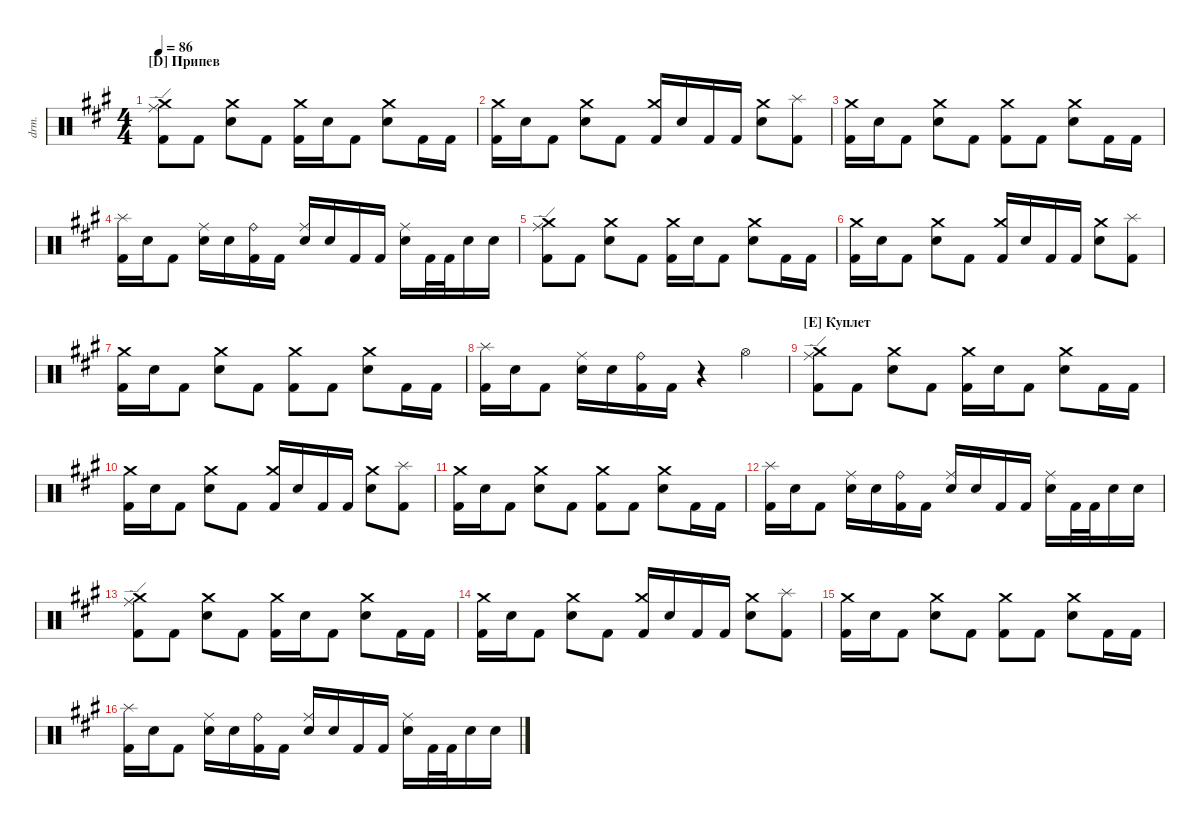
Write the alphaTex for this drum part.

\defaultSystemsLayout 4
\hideDynamics
\bracketExtendMode nobrackets
\track ("Drumkit" "drm.") {instrument percussion}
\staff {score}
\articulation defaults
\ts (4 4)
\section ("D" "Припев")
\tempo 86
\clef neutral
\ks f#minor
("Kick (hit) 2"{acc forcenatural} "Crash medium (hit)"{acc forcenatural} "Ride (edge)"{acc forcenatural}).8{dy mf beam Down} "Kick (hit) 2"{acc forcenatural}.8{beam Down} ("Snare (hit) 2"{acc forcenatural} "Crash medium (hit)"{acc forcenatural}).8{beam Down} "Kick (hit) 2"{acc forcenatural}.8{beam Down} ("Kick (hit) 2"{acc forcenatural} "Crash medium (hit)"{acc forcenatural}).16{beam Down} "Snare (hit) 2"{acc forcenatural}.16{beam Down} "Kick (hit) 2"{acc forcenatural}.8{beam Down} ("Snare (hit) 2"{acc forcenatural} "Crash medium (hit)"{acc forcenatural}).8{beam Down} "Kick (hit) 2"{acc forcenatural}.16{beam Down} "Kick (hit) 2"{acc forcenatural}.16{beam Down} |
("Kick (hit) 2"{acc forcenatural} "Crash medium (hit)"{acc forcenatural}).16{beam Down} "Snare (hit) 2"{acc forcenatural}.16{beam Down} "Kick (hit) 2"{acc forcenatural}.8{beam Down} ("Snare (hit) 2"{acc forcenatural} "Crash medium (hit)"{acc forcenatural}).8{beam Down} "Kick (hit) 2"{acc forcenatural}.8{beam Down} ("Kick (hit) 2"{acc forcenatural} "Crash medium (hit)"{acc forcenatural}).16{beam Up} "Snare (hit) 2"{acc forcenatural}.16{beam Up} "Kick (hit) 2"{acc forcenatural}.16{beam Up} "Kick (hit) 2"{acc forcenatural}.16{beam Up} ("Snare (hit) 2"{acc forcenatural} "Crash medium (hit)"{acc forcenatural}).8{beam Down} ("Kick (hit) 2"{acc forcenatural} "Splash (hit)"{acc forcenatural}).8{beam Down} |
("Kick (hit) 2"{acc forcenatural} "Crash medium (hit)"{acc forcenatural}).16{beam Down} "Snare (hit) 2"{acc forcenatural}.16{beam Down} "Kick (hit) 2"{acc forcenatural}.8{beam Down} ("Snare (hit) 2"{acc forcenatural} "Crash medium (hit)"{acc forcenatural}).8{beam Down} "Kick (hit) 2"{acc forcenatural}.8{beam Down} ("Kick (hit) 2"{acc forcenatural} "Crash medium (hit)"{acc forcenatural}).8{beam Down} "Kick (hit) 2"{acc forcenatural}.8{beam Down} ("Snare (hit) 2"{acc forcenatural} "Crash medium (hit)"{acc forcenatural}).8{beam Down} "Kick (hit) 2"{acc forcenatural}.16{beam Down} "Kick (hit) 2"{acc forcenatural}.16{beam Down} |
("Kick (hit) 2"{acc forcenatural} "Splash (hit)"{acc forcenatural}).16{beam Down} "Snare (hit) 2"{acc forcenatural}.16{beam Down} "Kick (hit) 2"{acc forcenatural}.8{beam Down} ("Snare (hit) 2"{acc forcenatural} "Ride (middle)"{acc forcenatural}).16{beam Down} "Snare (hit) 2"{acc forcenatural}.16{beam Down} ("Kick (hit) 2"{acc forcenatural} "Ride (bell)"{acc forcenatural}).16{beam Down} "Kick (hit) 2"{acc forcenatural}.16{beam Down} ("Snare (hit) 2"{acc forcenatural} "Ride (middle)"{acc forcenatural}).16{beam Up} "Snare (hit) 2"{acc forcenatural}.16{beam Up} "Kick (hit) 2"{acc forcenatural}.16{beam Up} "Kick (hit) 2"{acc forcenatural}.16{beam Up} ("Snare (hit) 2"{acc forcenatural} "Ride (middle)"{acc forcenatural}).16{beam Down} "Kick (hit) 2"{acc forcenatural}.32{beam Down} "Kick (hit) 2"{acc forcenatural}.32{beam Down} "Snare (hit) 2"{acc forcenatural}.16{beam Down} "Snare (hit) 2"{acc forcenatural}.16{beam Down} |
("Kick (hit) 2"{acc forcenatural} "Crash medium (hit)"{acc forcenatural} "Ride (edge)"{acc forcenatural}).8{beam Down} "Kick (hit) 2"{acc forcenatural}.8{beam Down} ("Snare (hit) 2"{acc forcenatural} "Crash medium (hit)"{acc forcenatural}).8{beam Down} "Kick (hit) 2"{acc forcenatural}.8{beam Down} ("Kick (hit) 2"{acc forcenatural} "Crash medium (hit)"{acc forcenatural}).16{beam Down} "Snare (hit) 2"{acc forcenatural}.16{beam Down} "Kick (hit) 2"{acc forcenatural}.8{beam Down} ("Snare (hit) 2"{acc forcenatural} "Crash medium (hit)"{acc forcenatural}).8{beam Down} "Kick (hit) 2"{acc forcenatural}.16{beam Down} "Kick (hit) 2"{acc forcenatural}.16{beam Down} |
("Kick (hit) 2"{acc forcenatural} "Crash medium (hit)"{acc forcenatural}).16{beam Down} "Snare (hit) 2"{acc forcenatural}.16{beam Down} "Kick (hit) 2"{acc forcenatural}.8{beam Down} ("Snare (hit) 2"{acc forcenatural} "Crash medium (hit)"{acc forcenatural}).8{beam Down} "Kick (hit) 2"{acc forcenatural}.8{beam Down} ("Kick (hit) 2"{acc forcenatural} "Crash medium (hit)"{acc forcenatural}).16{beam Up} "Snare (hit) 2"{acc forcenatural}.16{beam Up} "Kick (hit) 2"{acc forcenatural}.16{beam Up} "Kick (hit) 2"{acc forcenatural}.16{beam Up} ("Snare (hit) 2"{acc forcenatural} "Crash medium (hit)"{acc forcenatural}).8{beam Down} ("Kick (hit) 2"{acc forcenatural} "Splash (hit)"{acc forcenatural}).8{beam Down} |
("Kick (hit) 2"{acc forcenatural} "Crash medium (hit)"{acc forcenatural}).16{beam Down} "Snare (hit) 2"{acc forcenatural}.16{beam Down} "Kick (hit) 2"{acc forcenatural}.8{beam Down} ("Snare (hit) 2"{acc forcenatural} "Crash medium (hit)"{acc forcenatural}).8{beam Down} "Kick (hit) 2"{acc forcenatural}.8{beam Down} ("Kick (hit) 2"{acc forcenatural} "Crash medium (hit)"{acc forcenatural}).8{beam Down} "Kick (hit) 2"{acc forcenatural}.8{beam Down} ("Snare (hit) 2"{acc forcenatural} "Crash medium (hit)"{acc forcenatural}).8{beam Down} "Kick (hit) 2"{acc forcenatural}.16{beam Down} "Kick (hit) 2"{acc forcenatural}.16{beam Down} |
("Kick (hit) 2"{acc forcenatural} "Splash (hit)"{acc forcenatural}).16{beam Down} "Snare (hit) 2"{acc forcenatural}.16{beam Down} "Kick (hit) 2"{acc forcenatural}.8{beam Down} ("Snare (hit) 2"{acc forcenatural} "Ride (middle)"{acc forcenatural}).16{beam Down} "Snare (hit) 2"{acc forcenatural}.16{beam Down} ("Kick (hit) 2"{acc forcenatural} "Ride (bell)"{acc forcenatural}).16{beam Down} "Kick (hit) 2"{acc forcenatural}.16{beam Down} r.4{beam Down} "Hi-Hat (open)"{acc forcenatural}.4{beam Down} |
\section ("E" "Куплет")
("Kick (hit) 2"{acc forcenatural} "Crash medium (hit)"{acc forcenatural} "Ride (edge)"{acc forcenatural}).8{beam Down} "Kick (hit) 2"{acc forcenatural}.8{beam Down} ("Snare (hit) 2"{acc forcenatural} "Crash medium (hit)"{acc forcenatural}).8{beam Down} "Kick (hit) 2"{acc forcenatural}.8{beam Down} ("Kick (hit) 2"{acc forcenatural} "Crash medium (hit)"{acc forcenatural}).16{beam Down} "Snare (hit) 2"{acc forcenatural}.16{beam Down} "Kick (hit) 2"{acc forcenatural}.8{beam Down} ("Snare (hit) 2"{acc forcenatural} "Crash medium (hit)"{acc forcenatural}).8{beam Down} "Kick (hit) 2"{acc forcenatural}.16{beam Down} "Kick (hit) 2"{acc forcenatural}.16{beam Down} |
("Kick (hit) 2"{acc forcenatural} "Crash medium (hit)"{acc forcenatural}).16{beam Down} "Snare (hit) 2"{acc forcenatural}.16{beam Down} "Kick (hit) 2"{acc forcenatural}.8{beam Down} ("Snare (hit) 2"{acc forcenatural} "Crash medium (hit)"{acc forcenatural}).8{beam Down} "Kick (hit) 2"{acc forcenatural}.8{beam Down} ("Kick (hit) 2"{acc forcenatural} "Crash medium (hit)"{acc forcenatural}).16{beam Up} "Snare (hit) 2"{acc forcenatural}.16{beam Up} "Kick (hit) 2"{acc forcenatural}.16{beam Up} "Kick (hit) 2"{acc forcenatural}.16{beam Up} ("Snare (hit) 2"{acc forcenatural} "Crash medium (hit)"{acc forcenatural}).8{beam Down} ("Kick (hit) 2"{acc forcenatural} "Splash (hit)"{acc forcenatural}).8{beam Down} |
("Kick (hit) 2"{acc forcenatural} "Crash medium (hit)"{acc forcenatural}).16{beam Down} "Snare (hit) 2"{acc forcenatural}.16{beam Down} "Kick (hit) 2"{acc forcenatural}.8{beam Down} ("Snare (hit) 2"{acc forcenatural} "Crash medium (hit)"{acc forcenatural}).8{beam Down} "Kick (hit) 2"{acc forcenatural}.8{beam Down} ("Kick (hit) 2"{acc forcenatural} "Crash medium (hit)"{acc forcenatural}).8{beam Down} "Kick (hit) 2"{acc forcenatural}.8{beam Down} ("Snare (hit) 2"{acc forcenatural} "Crash medium (hit)"{acc forcenatural}).8{beam Down} "Kick (hit) 2"{acc forcenatural}.16{beam Down} "Kick (hit) 2"{acc forcenatural}.16{beam Down} |
("Kick (hit) 2"{acc forcenatural} "Splash (hit)"{acc forcenatural}).16{beam Down} "Snare (hit) 2"{acc forcenatural}.16{beam Down} "Kick (hit) 2"{acc forcenatural}.8{beam Down} ("Snare (hit) 2"{acc forcenatural} "Ride (middle)"{acc forcenatural}).16{beam Down} "Snare (hit) 2"{acc forcenatural}.16{beam Down} ("Kick (hit) 2"{acc forcenatural} "Ride (bell)"{acc forcenatural}).16{beam Down} "Kick (hit) 2"{acc forcenatural}.16{beam Down} ("Snare (hit) 2"{acc forcenatural} "Ride (middle)"{acc forcenatural}).16{beam Up} "Snare (hit) 2"{acc forcenatural}.16{beam Up} "Kick (hit) 2"{acc forcenatural}.16{beam Up} "Kick (hit) 2"{acc forcenatural}.16{beam Up} ("Snare (hit) 2"{acc forcenatural} "Ride (middle)"{acc forcenatural}).16{beam Down} "Kick (hit) 2"{acc forcenatural}.32{beam Down} "Kick (hit) 2"{acc forcenatural}.32{beam Down} "Snare (hit) 2"{acc forcenatural}.16{beam Down} "Snare (hit) 2"{acc forcenatural}.16{beam Down} |
("Kick (hit) 2"{acc forcenatural} "Crash medium (hit)"{acc forcenatural} "Ride (edge)"{acc forcenatural}).8{beam Down} "Kick (hit) 2"{acc forcenatural}.8{beam Down} ("Snare (hit) 2"{acc forcenatural} "Crash medium (hit)"{acc forcenatural}).8{beam Down} "Kick (hit) 2"{acc forcenatural}.8{beam Down} ("Kick (hit) 2"{acc forcenatural} "Crash medium (hit)"{acc forcenatural}).16{beam Down} "Snare (hit) 2"{acc forcenatural}.16{beam Down} "Kick (hit) 2"{acc forcenatural}.8{beam Down} ("Snare (hit) 2"{acc forcenatural} "Crash medium (hit)"{acc forcenatural}).8{beam Down} "Kick (hit) 2"{acc forcenatural}.16{beam Down} "Kick (hit) 2"{acc forcenatural}.16{beam Down} |
("Kick (hit) 2"{acc forcenatural} "Crash medium (hit)"{acc forcenatural}).16{beam Down} "Snare (hit) 2"{acc forcenatural}.16{beam Down} "Kick (hit) 2"{acc forcenatural}.8{beam Down} ("Snare (hit) 2"{acc forcenatural} "Crash medium (hit)"{acc forcenatural}).8{beam Down} "Kick (hit) 2"{acc forcenatural}.8{beam Down} ("Kick (hit) 2"{acc forcenatural} "Crash medium (hit)"{acc forcenatural}).16{beam Up} "Snare (hit) 2"{acc forcenatural}.16{beam Up} "Kick (hit) 2"{acc forcenatural}.16{beam Up} "Kick (hit) 2"{acc forcenatural}.16{beam Up} ("Snare (hit) 2"{acc forcenatural} "Crash medium (hit)"{acc forcenatural}).8{beam Down} ("Kick (hit) 2"{acc forcenatural} "Splash (hit)"{acc forcenatural}).8{beam Down} |
("Kick (hit) 2"{acc forcenatural} "Crash medium (hit)"{acc forcenatural}).16{beam Down} "Snare (hit) 2"{acc forcenatural}.16{beam Down} "Kick (hit) 2"{acc forcenatural}.8{beam Down} ("Snare (hit) 2"{acc forcenatural} "Crash medium (hit)"{acc forcenatural}).8{beam Down} "Kick (hit) 2"{acc forcenatural}.8{beam Down} ("Kick (hit) 2"{acc forcenatural} "Crash medium (hit)"{acc forcenatural}).8{beam Down} "Kick (hit) 2"{acc forcenatural}.8{beam Down} ("Snare (hit) 2"{acc forcenatural} "Crash medium (hit)"{acc forcenatural}).8{beam Down} "Kick (hit) 2"{acc forcenatural}.16{beam Down} "Kick (hit) 2"{acc forcenatural}.16{beam Down} |
("Kick (hit) 2"{acc forcenatural} "Splash (hit)"{acc forcenatural}).16{beam Down} "Snare (hit) 2"{acc forcenatural}.16{beam Down} "Kick (hit) 2"{acc forcenatural}.8{beam Down} ("Snare (hit) 2"{acc forcenatural} "Ride (middle)"{acc forcenatural}).16{beam Down} "Snare (hit) 2"{acc forcenatural}.16{beam Down} ("Kick (hit) 2"{acc forcenatural} "Ride (bell)"{acc forcenatural}).16{beam Down} "Kick (hit) 2"{acc forcenatural}.16{beam Down} ("Snare (hit) 2"{acc forcenatural} "Ride (middle)"{acc forcenatural}).16{beam Up} "Snare (hit) 2"{acc forcenatural}.16{beam Up} "Kick (hit) 2"{acc forcenatural}.16{beam Up} "Kick (hit) 2"{acc forcenatural}.16{beam Up} ("Snare (hit) 2"{acc forcenatural} "Ride (middle)"{acc forcenatural}).16{beam Down} "Kick (hit) 2"{acc forcenatural}.32{beam Down} "Kick (hit) 2"{acc forcenatural}.32{beam Down} "Snare (hit) 2"{acc forcenatural}.16{beam Down} "Snare (hit) 2"{acc forcenatural}.16{beam Down}
